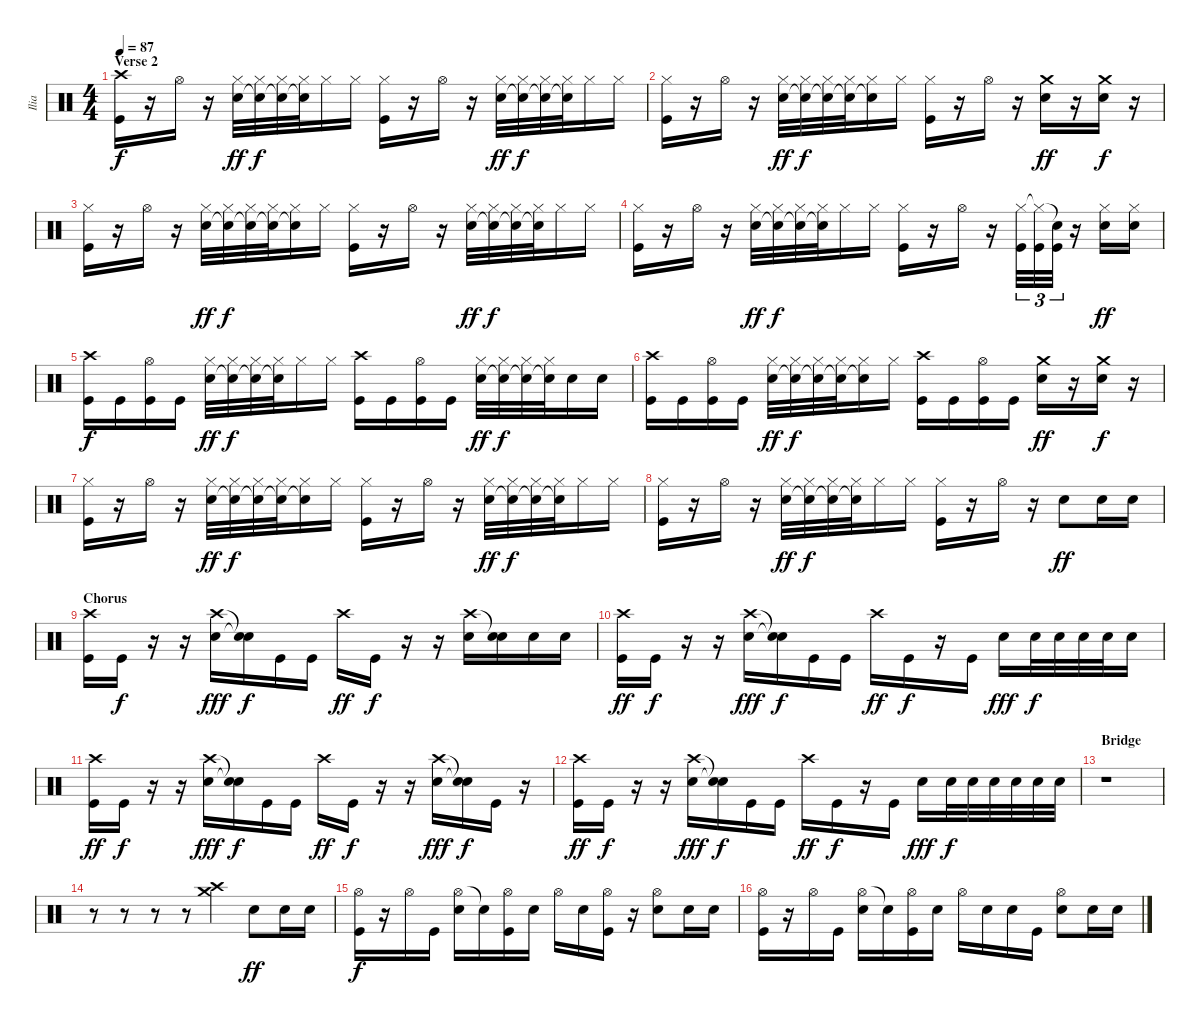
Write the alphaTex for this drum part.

\track ("Ilia" "Ilia") {instrument percussion}
\staff {score}
\articulation defaults
\ts (4 4)
\section ("" "Verse 2")
\tempo 87
\clef neutral
\ks c
("Crash high (hit)" "Kick (hit)").16{dy f} r.16 "Hi-Hat (open)".16 r.16 ("Hi-Hat (closed)" "Electric Snare (hit)").32{dy ff} ("Hi-Hat (closed)" "Snare (hit)"{t}).32{dy f} ("Hi-Hat (closed)" "Snare (hit)"{t}).32 ("Hi-Hat (closed)" "Snare (hit)"{t}).32 "Hi-Hat (closed)".16 "Hi-Hat (closed)".16 ("Hi-Hat (closed)" "Kick (hit)").16 r.16 "Hi-Hat (open)".16 r.16 ("Hi-Hat (closed)" "Electric Snare (hit)").32{dy ff} ("Hi-Hat (closed)" "Snare (hit)"{t}).32{dy f} ("Hi-Hat (closed)" "Snare (hit)"{t}).32 ("Hi-Hat (closed)" "Snare (hit)"{t}).32 "Hi-Hat (closed)".16 "Hi-Hat (closed)".16 |
("Hi-Hat (closed)" "Kick (hit)").16 r.16 "Hi-Hat (open)".16 r.16 ("Hi-Hat (closed)" "Electric Snare (hit)").32{dy ff} ("Hi-Hat (closed)" "Snare (hit)"{t}).32{dy f} ("Hi-Hat (closed)" "Snare (hit)"{t}).32 ("Hi-Hat (closed)" "Snare (hit)"{t}).32 ("Hi-Hat (closed)" "Snare (hit)"{t}).16 "Hi-Hat (closed)".16 ("Hi-Hat (closed)" "Kick (hit)").16 r.16 "Hi-Hat (open)".16 r.16 ("Crash medium (hit)" "Electric Snare (hit)").16{dy ff} r.16 ("Crash medium (hit)" "Electric Snare (hit)").16{dy f} r.16 |
("Hi-Hat (closed)" "Kick (hit)").16 r.16 "Hi-Hat (open)".16 r.16 ("Hi-Hat (closed)" "Electric Snare (hit)").32{dy ff} ("Hi-Hat (closed)" "Snare (hit)"{t}).32{dy f} ("Hi-Hat (closed)" "Snare (hit)"{t}).32 ("Hi-Hat (closed)" "Snare (hit)"{t}).32 ("Hi-Hat (closed)" "Snare (hit)"{t}).16 "Hi-Hat (closed)".16 ("Hi-Hat (closed)" "Kick (hit)").16 r.16 "Hi-Hat (open)".16 r.16 ("Hi-Hat (closed)" "Electric Snare (hit)").32{dy ff} ("Hi-Hat (closed)" "Snare (hit)"{t}).32{dy f} ("Hi-Hat (closed)" "Snare (hit)"{t}).32 ("Hi-Hat (closed)" "Snare (hit)"{t}).32 "Hi-Hat (closed)".16 "Hi-Hat (closed)".16 |
("Hi-Hat (closed)" "Kick (hit)").16 r.16 "Hi-Hat (open)".16 r.16 ("Hi-Hat (closed)" "Electric Snare (hit)").32{dy ff} ("Hi-Hat (closed)" "Snare (hit)"{t}).32{dy f} ("Hi-Hat (closed)" "Snare (hit)"{t}).32 ("Hi-Hat (closed)" "Snare (hit)"{t}).32 "Hi-Hat (closed)".16 "Hi-Hat (closed)".16 ("Hi-Hat (closed)" "Kick (hit)").16 r.16 "Hi-Hat (open)".16 r.16 ("Hi-Hat (closed)" "Kick (hit)").32{tu (3 2)} ("Hi-Hat (closed)"{t} "Kick (hit)").32{tu (3 2)} ("Snare (hit)"{t} "Kick (hit)").32{tu (3 2)} r.16 ("Hi-Hat (closed)" "Electric Snare (hit)").16{dy ff} ("Hi-Hat (closed)" "Electric Snare (hit)").16 |
("Crash high (hit)" "Kick (hit)").16{dy f} "Kick (hit)".16 ("Hi-Hat (open)" "Kick (hit)").16 "Kick (hit)".16 ("Hi-Hat (closed)" "Electric Snare (hit)").32{dy ff} ("Hi-Hat (closed)" "Snare (hit)"{t}).32{dy f} ("Hi-Hat (closed)" "Snare (hit)"{t}).32 ("Hi-Hat (closed)" "Snare (hit)"{t}).32 "Hi-Hat (closed)".16 "Hi-Hat (closed)".16 ("Crash high (hit)" "Kick (hit)").16 "Kick (hit)".16 ("Hi-Hat (open)" "Kick (hit)").16 "Kick (hit)".16 ("Hi-Hat (closed)" "Electric Snare (hit)").32{dy ff} ("Hi-Hat (closed)" "Snare (hit)"{t}).32{dy f} ("Hi-Hat (closed)" "Snare (hit)"{t}).32 ("Hi-Hat (closed)" "Snare (hit)"{t}).32 "Electric Snare (hit)".16 "Electric Snare (hit)".16 |
("Crash high (hit)" "Kick (hit)").16 "Kick (hit)".16 ("Hi-Hat (open)" "Kick (hit)").16 "Kick (hit)".16 ("Hi-Hat (closed)" "Electric Snare (hit)").32{dy ff} ("Hi-Hat (closed)" "Snare (hit)"{t}).32{dy f} ("Hi-Hat (closed)" "Snare (hit)"{t}).32 ("Hi-Hat (closed)" "Snare (hit)"{t}).32 ("Hi-Hat (closed)" "Snare (hit)"{t}).16 "Hi-Hat (closed)".16 ("Crash high (hit)" "Kick (hit)").16 "Kick (hit)".16 ("Hi-Hat (open)" "Kick (hit)").16 "Kick (hit)".16 ("Crash medium (hit)" "Electric Snare (hit)").16{dy ff} r.16 ("Crash medium (hit)" "Electric Snare (hit)").16{dy f} r.16 |
("Hi-Hat (closed)" "Kick (hit)").16 r.16 "Hi-Hat (open)".16 r.16 ("Hi-Hat (closed)" "Electric Snare (hit)").32{dy ff} ("Hi-Hat (closed)" "Snare (hit)"{t}).32{dy f} ("Hi-Hat (closed)" "Snare (hit)"{t}).32 ("Hi-Hat (closed)" "Snare (hit)"{t}).32 ("Hi-Hat (closed)" "Snare (hit)"{t}).16 "Hi-Hat (closed)".16 ("Hi-Hat (closed)" "Kick (hit)").16 r.16 "Hi-Hat (open)".16 r.16 ("Hi-Hat (closed)" "Electric Snare (hit)").32{dy ff} ("Hi-Hat (closed)" "Snare (hit)"{t}).32{dy f} ("Hi-Hat (closed)" "Snare (hit)"{t}).32 ("Hi-Hat (closed)" "Snare (hit)"{t}).32 "Hi-Hat (closed)".16 "Hi-Hat (closed)".16 |
("Hi-Hat (closed)" "Kick (hit)").16 r.16 "Hi-Hat (open)".16 r.16 ("Hi-Hat (closed)" "Electric Snare (hit)").32{dy ff} ("Hi-Hat (closed)" "Snare (hit)"{t}).32{dy f} ("Hi-Hat (closed)" "Snare (hit)"{t}).32 ("Hi-Hat (closed)" "Snare (hit)"{t}).32 "Hi-Hat (closed)".16 "Hi-Hat (closed)".16 ("Hi-Hat (closed)" "Kick (hit)").16 r.16 "Hi-Hat (open)".16 r.16 "Electric Snare (hit)".8{dy ff} "Electric Snare (hit)".16 "Electric Snare (hit)".16 |
\section ("" "Chorus")
("Crash high (hit)" "Kick (hit)").16 "Kick (hit)".16{dy f} r.16 r.16 ("Crash high (hit)" "Electric Snare (hit)").16{dy fff} ("Snare (hit)"{t} "Snare (hit)"{t}).16{dy f} "Kick (hit)".16 "Kick (hit)".16 "Crash high (hit)".16{dy ff} "Kick (hit)".16{dy f} r.16 r.16 ("Crash high (hit)" "Electric Snare (hit)").16 ("Snare (hit)"{t} "Electric Snare (hit)").16 "Electric Snare (hit)".16 "Electric Snare (hit)".16 |
("Crash high (hit)" "Kick (hit)").16{dy ff} "Kick (hit)".16{dy f} r.16 r.16 ("Crash high (hit)" "Electric Snare (hit)").16{dy fff} ("Snare (hit)"{t} "Snare (hit)"{t}).16{dy f} "Kick (hit)".16 "Kick (hit)".16 "Crash high (hit)".16{dy ff} "Kick (hit)".16{dy f} r.16 "Kick (hit)".16 "Electric Snare (hit)".16{dy fff} "Electric Snare (hit)".32{dy f} "Electric Snare (hit)".32 "Electric Snare (hit)".32 "Electric Snare (hit)".32 "Electric Snare (hit)".16 |
("Crash high (hit)" "Kick (hit)").16{dy ff} "Kick (hit)".16{dy f} r.16 r.16 ("Crash high (hit)" "Electric Snare (hit)").16{dy fff} ("Snare (hit)"{t} "Snare (hit)"{t}).16{dy f} "Kick (hit)".16 "Kick (hit)".16 "Crash high (hit)".16{dy ff} "Kick (hit)".16{dy f} r.16 r.16 ("Crash high (hit)" "Electric Snare (hit)").16{dy fff} ("Snare (hit)"{t} "Snare (hit)"{t}).16{dy f} "Kick (hit)".16 r.16 |
("Crash high (hit)" "Kick (hit)").16{dy ff} "Kick (hit)".16{dy f} r.16 r.16 ("Crash high (hit)" "Electric Snare (hit)").16{dy fff} ("Snare (hit)"{t} "Snare (hit)"{t}).16{dy f} "Kick (hit)".16 "Kick (hit)".16 "Crash high (hit)".16{dy ff} "Kick (hit)".16{dy f} r.16 "Kick (hit)".16 "Electric Snare (hit)".16{dy fff} "Electric Snare (hit)".32{dy f} "Electric Snare (hit)".32 "Electric Snare (hit)".32 "Electric Snare (hit)".32 "Electric Snare (hit)".32 "Electric Snare (hit)".32 |
\section ("" "Bridge")
r.1 |
r.8 r.8 r.8 r.8 ("Crash medium (hit)" "Crash high (hit)").4 "Electric Snare (hit)".8{dy ff} "Electric Snare (hit)".16 "Electric Snare (hit)".16 |
("Hi-Hat (open)" "Kick (hit)").16{dy f} r.16 "Hi-Hat (open)".16 "Kick (hit)".16 ("Hi-Hat (open)" "Electric Snare (hit)").16 "Electric Snare (hit)"{t}.16 ("Hi-Hat (open)" "Kick (hit)").16 "Electric Snare (hit)".16 "Hi-Hat (open)".16 "Electric Snare (hit)".16 ("Hi-Hat (open)" "Kick (hit)").16 r.16 ("Hi-Hat (open)" "Electric Snare (hit)").8 "Electric Snare (hit)".16 "Electric Snare (hit)".16 |
("Hi-Hat (open)" "Kick (hit)").16 r.16 "Hi-Hat (open)".16 "Kick (hit)".16 ("Hi-Hat (open)" "Electric Snare (hit)").16 "Electric Snare (hit)"{t}.16 ("Hi-Hat (open)" "Kick (hit)").16 "Electric Snare (hit)".16 "Hi-Hat (open)".16 "Electric Snare (hit)".16 "Electric Snare (hit)".16 "Kick (hit)".16 ("Hi-Hat (open)" "Electric Snare (hit)").8 "Electric Snare (hit)".16 "Electric Snare (hit)".16
